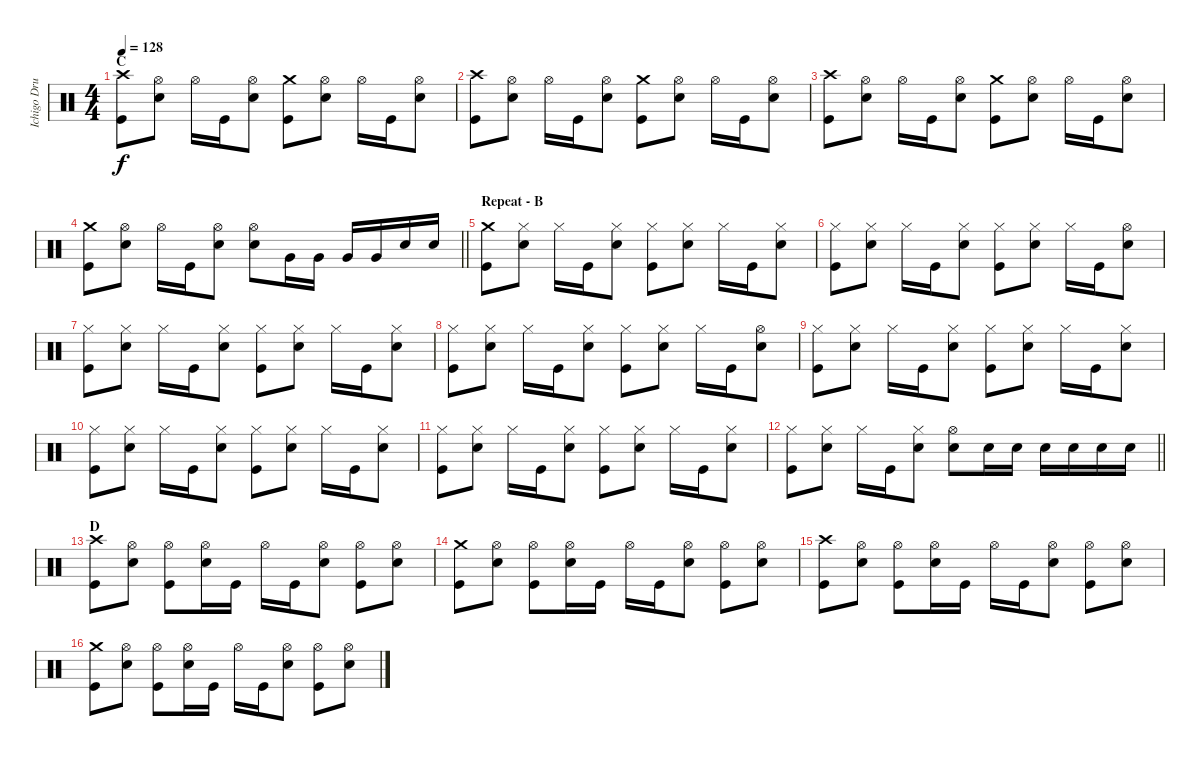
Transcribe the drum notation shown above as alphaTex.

\track ("Ichigo Drums" "Ichigo Dru") {instrument percussion}
\staff {score}
\articulation defaults
\ts (4 4)
\section ("" "C")
\tempo 128
\clef neutral
\ks c
("Crash high (hit)" "Kick (hit)").8{dy f} ("Hi-Hat (open)" "Snare (hit) 2").8 "Hi-Hat (open)".16 "Kick (hit)".16 ("Hi-Hat (open)" "Snare (hit) 2").8 ("Crash medium (hit)" "Kick (hit)").8 ("Hi-Hat (open)" "Snare (hit) 2").8 "Hi-Hat (open)".16 "Kick (hit)".16 ("Hi-Hat (open)" "Snare (hit) 2").8 |
("Crash high (hit)" "Kick (hit)").8 ("Hi-Hat (open)" "Snare (hit) 2").8 "Hi-Hat (open)".16 "Kick (hit)".16 ("Hi-Hat (open)" "Snare (hit) 2").8 ("Crash medium (hit)" "Kick (hit)").8 ("Hi-Hat (open)" "Snare (hit) 2").8 "Hi-Hat (open)".16 "Kick (hit)".16 ("Hi-Hat (open)" "Snare (hit) 2").8 |
("Crash high (hit)" "Kick (hit)").8 ("Hi-Hat (open)" "Snare (hit) 2").8 "Hi-Hat (open)".16 "Kick (hit)".16 ("Hi-Hat (open)" "Snare (hit) 2").8 ("Crash medium (hit)" "Kick (hit)").8 ("Hi-Hat (open)" "Snare (hit) 2").8 "Hi-Hat (open)".16 "Kick (hit)".16 ("Hi-Hat (open)" "Snare (hit) 2").8 |
\barLineRight lightlight
("Crash medium (hit)" "Kick (hit)").8 ("Hi-Hat (open)" "Snare (hit) 2").8 "Hi-Hat (open)".16 "Kick (hit)".16 ("Hi-Hat (open)" "Snare (hit) 2").8 ("Hi-Hat (open)" "Snare (hit) 2").8 "Very Low Tom (hit)".16 "Very Low Tom (hit)".16 "Very Low Tom (hit)".16 "Very Low Tom (hit)".16 "Snare (hit) 2".16 "Snare (hit) 2".16 |
\section ("" "Repeat - B")
("Crash medium (hit)" "Kick (hit)").8 ("Hi-Hat (closed)" "Snare (hit) 2").8 "Hi-Hat (closed)".16 "Kick (hit)".16 ("Hi-Hat (closed)" "Snare (hit) 2").8 ("Hi-Hat (closed)" "Kick (hit)").8 ("Hi-Hat (closed)" "Snare (hit) 2").8 "Hi-Hat (closed)".16 "Kick (hit)".16 ("Hi-Hat (closed)" "Snare (hit) 2").8 |
("Hi-Hat (closed)" "Kick (hit)").8 ("Hi-Hat (closed)" "Snare (hit) 2").8 "Hi-Hat (closed)".16 "Kick (hit)".16 ("Hi-Hat (closed)" "Snare (hit) 2").8 ("Hi-Hat (closed)" "Kick (hit)").8 ("Hi-Hat (closed)" "Snare (hit) 2").8 "Hi-Hat (closed)".16 "Kick (hit)".16 ("Hi-Hat (open)" "Snare (hit) 2").8 |
("Hi-Hat (closed)" "Kick (hit)").8 ("Hi-Hat (closed)" "Snare (hit) 2").8 "Hi-Hat (closed)".16 "Kick (hit)".16 ("Hi-Hat (closed)" "Snare (hit) 2").8 ("Hi-Hat (closed)" "Kick (hit)").8 ("Hi-Hat (closed)" "Snare (hit) 2").8 "Hi-Hat (closed)".16 "Kick (hit)".16 ("Hi-Hat (closed)" "Snare (hit) 2").8 |
("Hi-Hat (closed)" "Kick (hit)").8 ("Hi-Hat (closed)" "Snare (hit) 2").8 "Hi-Hat (closed)".16 "Kick (hit)".16 ("Hi-Hat (closed)" "Snare (hit) 2").8 ("Hi-Hat (closed)" "Kick (hit)").8 ("Hi-Hat (closed)" "Snare (hit) 2").8 "Hi-Hat (closed)".16 "Kick (hit)".16 ("Hi-Hat (open)" "Snare (hit) 2").8 |
("Hi-Hat (closed)" "Kick (hit)").8 ("Hi-Hat (closed)" "Snare (hit) 2").8 "Hi-Hat (closed)".16 "Kick (hit)".16 ("Hi-Hat (closed)" "Snare (hit) 2").8 ("Hi-Hat (closed)" "Kick (hit)").8 ("Hi-Hat (closed)" "Snare (hit) 2").8 "Hi-Hat (closed)".16 "Kick (hit)".16 ("Hi-Hat (closed)" "Snare (hit) 2").8 |
("Hi-Hat (closed)" "Kick (hit)").8 ("Hi-Hat (closed)" "Snare (hit) 2").8 "Hi-Hat (closed)".16 "Kick (hit)".16 ("Hi-Hat (closed)" "Snare (hit) 2").8 ("Hi-Hat (closed)" "Kick (hit)").8 ("Hi-Hat (closed)" "Snare (hit) 2").8 "Hi-Hat (closed)".16 "Kick (hit)".16 ("Hi-Hat (closed)" "Snare (hit) 2").8 |
("Hi-Hat (closed)" "Kick (hit)").8 ("Hi-Hat (closed)" "Snare (hit) 2").8 "Hi-Hat (closed)".16 "Kick (hit)".16 ("Hi-Hat (closed)" "Snare (hit) 2").8 ("Hi-Hat (closed)" "Kick (hit)").8 ("Hi-Hat (closed)" "Snare (hit) 2").8 "Hi-Hat (closed)".16 "Kick (hit)".16 ("Hi-Hat (closed)" "Snare (hit) 2").8 |
\barLineRight lightlight
("Hi-Hat (closed)" "Kick (hit)").8 ("Hi-Hat (closed)" "Snare (hit) 2").8 "Hi-Hat (closed)".16 "Kick (hit)".16 ("Hi-Hat (closed)" "Snare (hit) 2").8 ("Hi-Hat (open)" "Snare (hit) 2").8 "Snare (hit) 2".16 "Snare (hit) 2".16 "Snare (hit) 2".16 "Snare (hit) 2".16 "Snare (hit) 2".16 "Snare (hit) 2".16 |
\section ("" "D")
("Crash high (hit)" "Kick (hit)").8 ("Hi-Hat (open)" "Snare (hit) 2").8 ("Hi-Hat (open)" "Kick (hit)").8 ("Hi-Hat (open)" "Snare (hit) 2").16 "Kick (hit)".16 "Hi-Hat (open)".16 "Kick (hit)".16 ("Hi-Hat (open)" "Snare (hit) 2").8 ("Hi-Hat (open)" "Kick (hit)").8 ("Hi-Hat (open)" "Snare (hit) 2").8 |
("Crash medium (hit)" "Kick (hit)").8 ("Hi-Hat (open)" "Snare (hit) 2").8 ("Hi-Hat (open)" "Kick (hit)").8 ("Hi-Hat (open)" "Snare (hit) 2").16 "Kick (hit)".16 "Hi-Hat (open)".16 "Kick (hit)".16 ("Hi-Hat (open)" "Snare (hit) 2").8 ("Hi-Hat (open)" "Kick (hit)").8 ("Hi-Hat (open)" "Snare (hit) 2").8 |
("Crash high (hit)" "Kick (hit)").8 ("Hi-Hat (open)" "Snare (hit) 2").8 ("Hi-Hat (open)" "Kick (hit)").8 ("Hi-Hat (open)" "Snare (hit) 2").16 "Kick (hit)".16 "Hi-Hat (open)".16 "Kick (hit)".16 ("Hi-Hat (open)" "Snare (hit) 2").8 ("Hi-Hat (open)" "Kick (hit)").8 ("Hi-Hat (open)" "Snare (hit) 2").8 |
("Crash medium (hit)" "Kick (hit)").8 ("Hi-Hat (open)" "Snare (hit) 2").8 ("Hi-Hat (open)" "Kick (hit)").8 ("Hi-Hat (open)" "Snare (hit) 2").16 "Kick (hit)".16 "Hi-Hat (open)".16 "Kick (hit)".16 ("Hi-Hat (open)" "Snare (hit) 2").8 ("Hi-Hat (open)" "Kick (hit)").8 ("Hi-Hat (open)" "Snare (hit) 2").8
